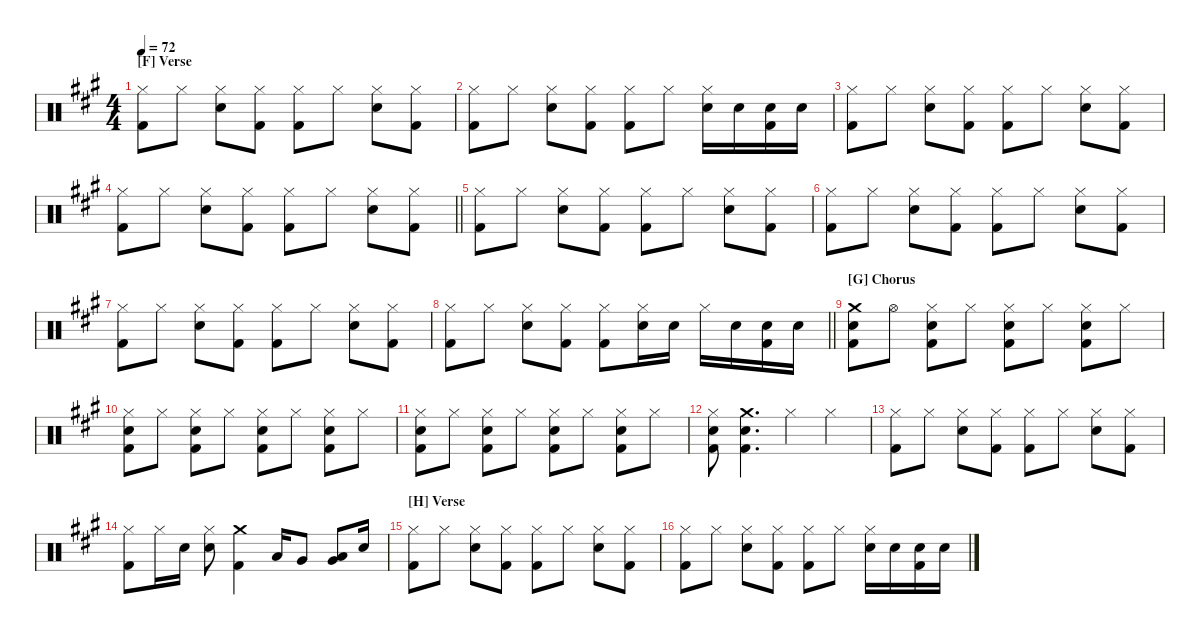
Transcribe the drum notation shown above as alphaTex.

\hideDynamics
\bracketExtendMode nobrackets
\singleTrackTrackNamePolicy hidden
\multiTrackTrackNamePolicy hidden
\otherSystemsTrackNameOrientation horizontal
\track ("Drumkit" "Drums") {instrument percussion}
\staff {score}
\articulation defaults
\ts (4 4)
\section ("F" "Verse")
\tempo 72
\clef neutral
\ks a
("Hi-Hat (closed)"{acc forcenatural} "Kick (hit) 2"{acc forcenatural}).8{dy mf beam Down} "Hi-Hat (closed)"{acc forcenatural}.8{beam Down} ("Hi-Hat (closed)"{acc forcenatural} "Snare (hit) 2"{acc forcenatural}).8{beam Down} ("Hi-Hat (closed)"{acc forcenatural} "Kick (hit) 2"{acc forcenatural}).8{beam Down} ("Hi-Hat (closed)"{acc forcenatural} "Kick (hit) 2"{acc forcenatural}).8{beam Down} "Hi-Hat (closed)"{acc forcenatural}.8{beam Down} ("Hi-Hat (closed)"{acc forcenatural} "Snare (hit) 2"{acc forcenatural}).8{beam Down} ("Hi-Hat (closed)"{acc forcenatural} "Kick (hit) 2"{acc forcenatural}).8{beam Down} |
("Kick (hit) 2"{acc forcenatural} "Hi-Hat (closed)"{acc forcenatural}).8{beam Down} "Hi-Hat (closed)"{acc forcenatural}.8{beam Down} ("Snare (hit) 2"{acc forcenatural} "Hi-Hat (closed)"{acc forcenatural}).8{beam Down} ("Kick (hit) 2"{acc forcenatural} "Hi-Hat (closed)"{acc forcenatural}).8{beam Down} ("Kick (hit) 2"{acc forcenatural} "Hi-Hat (closed)"{acc forcenatural}).8{beam Down} "Hi-Hat (closed)"{acc forcenatural}.8{beam Down} ("Snare (hit) 2"{acc forcenatural} "Hi-Hat (closed)"{acc forcenatural}).16{beam Down} "Snare (hit) 2"{acc forcenatural}.16{beam Down} ("Snare (hit) 2"{acc forcenatural} "Kick (hit) 2"{acc forcenatural}).16{beam Down} "Snare (hit) 2"{acc forcenatural}.16{beam Down} |
("Hi-Hat (closed)"{acc forcenatural} "Kick (hit) 2"{acc forcenatural}).8{beam Down} "Hi-Hat (closed)"{acc forcenatural}.8{beam Down} ("Hi-Hat (closed)"{acc forcenatural} "Snare (hit) 2"{acc forcenatural}).8{beam Down} ("Hi-Hat (closed)"{acc forcenatural} "Kick (hit) 2"{acc forcenatural}).8{beam Down} ("Hi-Hat (closed)"{acc forcenatural} "Kick (hit) 2"{acc forcenatural}).8{beam Down} "Hi-Hat (closed)"{acc forcenatural}.8{beam Down} ("Hi-Hat (closed)"{acc forcenatural} "Snare (hit) 2"{acc forcenatural}).8{beam Down} ("Hi-Hat (closed)"{acc forcenatural} "Kick (hit) 2"{acc forcenatural}).8{beam Down} |
\barLineRight lightlight
("Hi-Hat (closed)"{acc forcenatural} "Kick (hit) 2"{acc forcenatural}).8{beam Down} "Hi-Hat (closed)"{acc forcenatural}.8{beam Down} ("Hi-Hat (closed)"{acc forcenatural} "Snare (hit) 2"{acc forcenatural}).8{beam Down} ("Hi-Hat (closed)"{acc forcenatural} "Kick (hit) 2"{acc forcenatural}).8{beam Down} ("Hi-Hat (closed)"{acc forcenatural} "Kick (hit) 2"{acc forcenatural}).8{beam Down} "Hi-Hat (closed)"{acc forcenatural}.8{beam Down} ("Hi-Hat (closed)"{acc forcenatural} "Snare (hit) 2"{acc forcenatural}).8{beam Down} ("Hi-Hat (closed)"{acc forcenatural} "Kick (hit) 2"{acc forcenatural}).8{beam Down} |
("Hi-Hat (closed)"{acc forcenatural} "Kick (hit) 2"{acc forcenatural}).8{beam Down} "Hi-Hat (closed)"{acc forcenatural}.8{beam Down} ("Hi-Hat (closed)"{acc forcenatural} "Snare (hit) 2"{acc forcenatural}).8{beam Down} ("Hi-Hat (closed)"{acc forcenatural} "Kick (hit) 2"{acc forcenatural}).8{beam Down} ("Hi-Hat (closed)"{acc forcenatural} "Kick (hit) 2"{acc forcenatural}).8{beam Down} "Hi-Hat (closed)"{acc forcenatural}.8{beam Down} ("Hi-Hat (closed)"{acc forcenatural} "Snare (hit) 2"{acc forcenatural}).8{beam Down} ("Hi-Hat (closed)"{acc forcenatural} "Kick (hit) 2"{acc forcenatural}).8{beam Down} |
("Hi-Hat (closed)"{acc forcenatural} "Kick (hit) 2"{acc forcenatural}).8{beam Down} "Hi-Hat (closed)"{acc forcenatural}.8{beam Down} ("Hi-Hat (closed)"{acc forcenatural} "Snare (hit) 2"{acc forcenatural}).8{beam Down} ("Hi-Hat (closed)"{acc forcenatural} "Kick (hit) 2"{acc forcenatural}).8{beam Down} ("Hi-Hat (closed)"{acc forcenatural} "Kick (hit) 2"{acc forcenatural}).8{beam Down} "Hi-Hat (closed)"{acc forcenatural}.8{beam Down} ("Hi-Hat (closed)"{acc forcenatural} "Snare (hit) 2"{acc forcenatural}).8{beam Down} ("Hi-Hat (closed)"{acc forcenatural} "Kick (hit) 2"{acc forcenatural}).8{beam Down} |
("Hi-Hat (closed)"{acc forcenatural} "Kick (hit) 2"{acc forcenatural}).8{beam Down} "Hi-Hat (closed)"{acc forcenatural}.8{beam Down} ("Hi-Hat (closed)"{acc forcenatural} "Snare (hit) 2"{acc forcenatural}).8{beam Down} ("Hi-Hat (closed)"{acc forcenatural} "Kick (hit) 2"{acc forcenatural}).8{beam Down} ("Hi-Hat (closed)"{acc forcenatural} "Kick (hit) 2"{acc forcenatural}).8{beam Down} "Hi-Hat (closed)"{acc forcenatural}.8{beam Down} ("Hi-Hat (closed)"{acc forcenatural} "Snare (hit) 2"{acc forcenatural}).8{beam Down} ("Hi-Hat (closed)"{acc forcenatural} "Kick (hit) 2"{acc forcenatural}).8{beam Down} |
\barLineRight lightlight
("Kick (hit) 2"{acc forcenatural} "Hi-Hat (closed)"{acc forcenatural}).8{beam Down} "Hi-Hat (closed)"{acc forcenatural}.8{beam Down} ("Snare (hit) 2"{acc forcenatural} "Hi-Hat (closed)"{acc forcenatural}).8{beam Down} ("Kick (hit) 2"{acc forcenatural} "Hi-Hat (closed)"{acc forcenatural}).8{beam Down} ("Kick (hit) 2"{acc forcenatural} "Hi-Hat (closed)"{acc forcenatural}).8{beam Down} ("Snare (hit) 2"{acc forcenatural} "Hi-Hat (closed)"{acc forcenatural}).16{beam Down} "Snare (hit) 2"{acc forcenatural}.16{beam Down} "Hi-Hat (closed)"{acc forcenatural}.16{beam Down} "Snare (hit) 2"{acc forcenatural}.16{beam Down} ("Snare (hit) 2"{acc forcenatural} "Kick (hit) 2"{acc forcenatural}).16{beam Down} "Snare (hit) 2"{acc forcenatural}.16{beam Down} |
\section ("G" "Chorus")
("Snare (hit) 2"{acc forcenatural} "Crash medium (hit)"{acc forcenatural} "Kick (hit) 2"{acc forcenatural}).8{beam Down} "Hi-Hat (open)"{acc forcenatural}.8{beam Down} ("Kick (hit) 2"{acc forcenatural} "Hi-Hat (closed)"{acc forcenatural} "Snare (hit) 2"{acc forcenatural}).8{beam Down} "Hi-Hat (closed)"{acc forcenatural}.8{beam Down} ("Kick (hit) 2"{acc forcenatural} "Snare (hit) 2"{acc forcenatural} "Hi-Hat (closed)"{acc forcenatural}).8{beam Down} "Hi-Hat (closed)"{acc forcenatural}.8{beam Down} ("Kick (hit) 2"{acc forcenatural} "Snare (hit) 2"{acc forcenatural} "Hi-Hat (closed)"{acc forcenatural}).8{beam Down} "Hi-Hat (closed)"{acc forcenatural}.8{beam Down} |
("Hi-Hat (closed)"{acc forcenatural} "Snare (hit) 2"{acc forcenatural} "Kick (hit) 2"{acc forcenatural}).8{beam Down} "Hi-Hat (closed)"{acc forcenatural}.8{beam Down} ("Kick (hit) 2"{acc forcenatural} "Hi-Hat (closed)"{acc forcenatural} "Snare (hit) 2"{acc forcenatural}).8{beam Down} "Hi-Hat (closed)"{acc forcenatural}.8{beam Down} ("Kick (hit) 2"{acc forcenatural} "Snare (hit) 2"{acc forcenatural} "Hi-Hat (closed)"{acc forcenatural}).8{beam Down} "Hi-Hat (closed)"{acc forcenatural}.8{beam Down} ("Kick (hit) 2"{acc forcenatural} "Snare (hit) 2"{acc forcenatural} "Hi-Hat (closed)"{acc forcenatural}).8{beam Down} "Hi-Hat (closed)"{acc forcenatural}.8{beam Down} |
("Hi-Hat (closed)"{acc forcenatural} "Snare (hit) 2"{acc forcenatural} "Kick (hit) 2"{acc forcenatural}).8{beam Down} "Hi-Hat (closed)"{acc forcenatural}.8{beam Down} ("Kick (hit) 2"{acc forcenatural} "Hi-Hat (closed)"{acc forcenatural} "Snare (hit) 2"{acc forcenatural}).8{beam Down} "Hi-Hat (closed)"{acc forcenatural}.8{beam Down} ("Kick (hit) 2"{acc forcenatural} "Snare (hit) 2"{acc forcenatural} "Hi-Hat (closed)"{acc forcenatural}).8{beam Down} "Hi-Hat (closed)"{acc forcenatural}.8{beam Down} ("Kick (hit) 2"{acc forcenatural} "Snare (hit) 2"{acc forcenatural} "Hi-Hat (closed)"{acc forcenatural}).8{beam Down} "Hi-Hat (closed)"{acc forcenatural}.8{beam Down} |
("Hi-Hat (closed)"{acc forcenatural} "Snare (hit) 2"{acc forcenatural} "Kick (hit) 2"{acc forcenatural}).8{beam Down} ("Snare (hit) 2"{acc forcenatural} "Kick (hit) 2"{acc forcenatural} "Crash medium (hit)"{acc forcenatural}).4{d beam Down} "Hi-Hat (closed)"{acc forcenatural}.4{beam Down} "Hi-Hat (closed)"{acc forcenatural}.4{beam Down} |
("Hi-Hat (closed)"{acc forcenatural} "Kick (hit) 2"{acc forcenatural}).8{beam Down} "Hi-Hat (closed)"{acc forcenatural}.8{beam Down} ("Hi-Hat (closed)"{acc forcenatural} "Snare (hit) 2"{acc forcenatural}).8{beam Down} ("Hi-Hat (closed)"{acc forcenatural} "Kick (hit) 2"{acc forcenatural}).8{beam Down} ("Hi-Hat (closed)"{acc forcenatural} "Kick (hit) 2"{acc forcenatural}).8{beam Down} "Hi-Hat (closed)"{acc forcenatural}.8{beam Down} ("Hi-Hat (closed)"{acc forcenatural} "Snare (hit) 2"{acc forcenatural}).8{beam Down} ("Hi-Hat (closed)"{acc forcenatural} "Kick (hit) 2"{acc forcenatural}).8{beam Down} |
("Hi-Hat (closed)"{acc forcenatural} "Kick (hit) 2"{acc forcenatural}).8{beam Down} "Hi-Hat (closed)"{acc forcenatural}.16{beam Down} "Snare (hit) 2"{acc forcenatural}.16{beam Down} ("Hi-Hat (closed)"{acc forcenatural} "Snare (hit) 2"{acc forcenatural}).8{beam Down} ("Crash medium (hit)"{acc forcenatural} "Kick (hit) 2"{acc forcenatural}).4{beam Down} "Low Tom (hit)"{acc forcenatural}.16{beam Up} "Very Low Tom (hit)"{acc forcenatural}.8{beam Up} ("Low Tom (hit)"{acc forcenatural} "Very Low Tom (hit)"{acc forcenatural}).8{beam Up} "Snare (hit) 2"{acc forcenatural}.16{beam Up} |
\section ("H" "Verse")
("Hi-Hat (closed)"{acc forcenatural} "Kick (hit) 2"{acc forcenatural}).8{beam Down} "Hi-Hat (closed)"{acc forcenatural}.8{beam Down} ("Hi-Hat (closed)"{acc forcenatural} "Snare (hit) 2"{acc forcenatural}).8{beam Down} ("Hi-Hat (closed)"{acc forcenatural} "Kick (hit) 2"{acc forcenatural}).8{beam Down} ("Hi-Hat (closed)"{acc forcenatural} "Kick (hit) 2"{acc forcenatural}).8{beam Down} "Hi-Hat (closed)"{acc forcenatural}.8{beam Down} ("Hi-Hat (closed)"{acc forcenatural} "Snare (hit) 2"{acc forcenatural}).8{beam Down} ("Hi-Hat (closed)"{acc forcenatural} "Kick (hit) 2"{acc forcenatural}).8{beam Down} |
("Kick (hit) 2"{acc forcenatural} "Hi-Hat (closed)"{acc forcenatural}).8{beam Down} "Hi-Hat (closed)"{acc forcenatural}.8{beam Down} ("Snare (hit) 2"{acc forcenatural} "Hi-Hat (closed)"{acc forcenatural}).8{beam Down} ("Kick (hit) 2"{acc forcenatural} "Hi-Hat (closed)"{acc forcenatural}).8{beam Down} ("Kick (hit) 2"{acc forcenatural} "Hi-Hat (closed)"{acc forcenatural}).8{beam Down} "Hi-Hat (closed)"{acc forcenatural}.8{beam Down} ("Snare (hit) 2"{acc forcenatural} "Hi-Hat (closed)"{acc forcenatural}).16{beam Down} "Snare (hit) 2"{acc forcenatural}.16{beam Down} ("Snare (hit) 2"{acc forcenatural} "Kick (hit) 2"{acc forcenatural}).16{beam Down} "Snare (hit) 2"{acc forcenatural}.16{beam Down}
